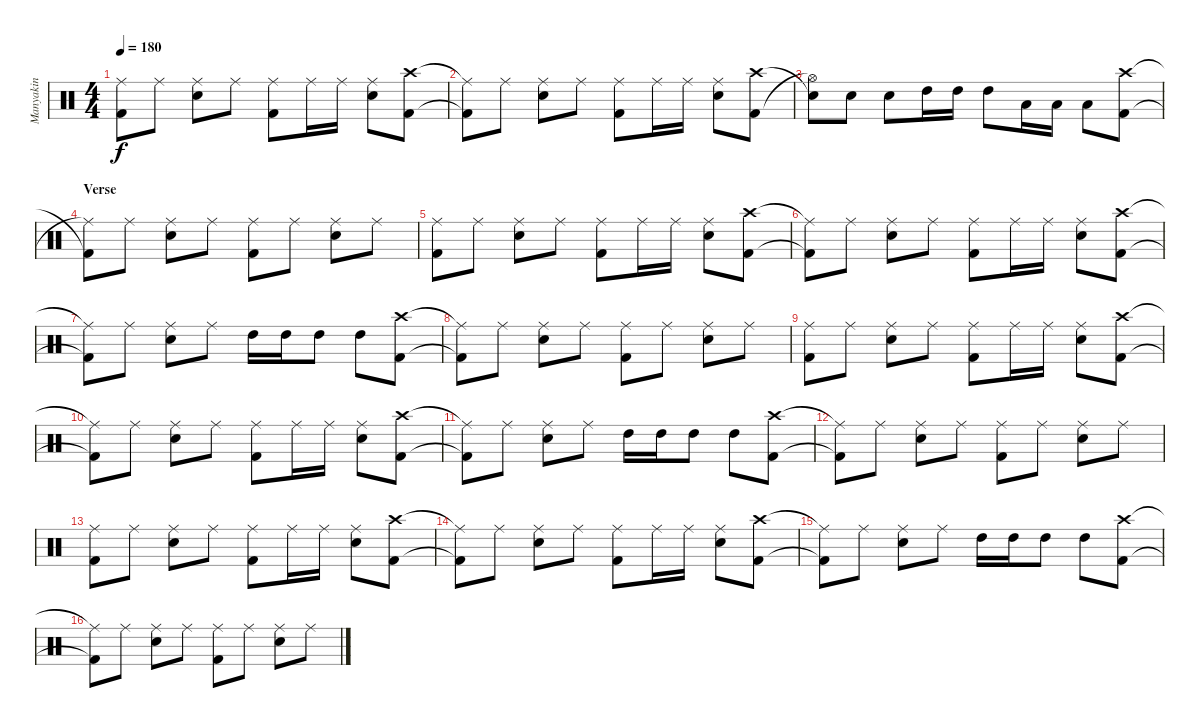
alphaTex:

\track ("Manyakin" "Manyakin") {instrument percussion}
\staff {score}
\articulation defaults
\ts (4 4)
\tempo 180
\clef neutral
\ks c
("Kick (hit) 2" "Ride (middle)").8{dy f} "Ride (middle)".8 ("Snare (hit) 2" "Ride (middle)").8 "Ride (middle)".8 ("Kick (hit) 2" "Ride (middle)").8 "Ride (middle)".16 "Ride (middle)".16 ("Snare (hit) 2" "Ride (middle)").8 ("Kick (hit) 2" "Crash high (hit)").8 |
("Kick (hit) 2"{t} "Ride (middle)"{t}).8 "Ride (middle)".8 ("Snare (hit) 2" "Ride (middle)").8 "Ride (middle)".8 ("Kick (hit) 2" "Ride (middle)").8 "Ride (middle)".16 "Ride (middle)".16 ("Snare (hit) 2" "Ride (middle)").8 ("Kick (hit) 2" "Crash high (hit)").8 |
("Hi-Hat (open)"{t} "Snare (hit)"{t}).8 "Snare (hit) 2".8 "Snare (hit) 2".8 "High Tom (hit)".16 "High Tom (hit)".16 "High Tom (hit)".8 "Low Tom (hit)".16 "Low Tom (hit)".16 "Low Tom (hit)".8 ("Kick (hit) 2" "Crash high (hit)").8 |
\section ("" "Verse")
("Ride (middle)"{t} "Kick (hit) 2"{t}).8 "Ride (middle)".8 ("Ride (middle)" "Snare (hit) 2").8 "Ride (middle)".8 ("Ride (middle)" "Kick (hit) 2").8 "Ride (middle)".8 ("Ride (middle)" "Snare (hit) 2").8 "Ride (middle)".8 |
("Kick (hit) 2" "Ride (middle)").8 "Ride (middle)".8 ("Snare (hit) 2" "Ride (middle)").8 "Ride (middle)".8 ("Kick (hit) 2" "Ride (middle)").8 "Ride (middle)".16 "Ride (middle)".16 ("Snare (hit) 2" "Ride (middle)").8 ("Kick (hit) 2" "Crash high (hit)").8 |
("Kick (hit) 2"{t} "Ride (middle)"{t}).8 "Ride (middle)".8 ("Snare (hit) 2" "Ride (middle)").8 "Ride (middle)".8 ("Kick (hit) 2" "Ride (middle)").8 "Ride (middle)".16 "Ride (middle)".16 ("Snare (hit) 2" "Ride (middle)").8 ("Kick (hit) 2" "Crash high (hit)").8 |
("Kick (hit) 2"{t} "Ride (middle)"{t}).8 "Ride (middle)".8 ("Snare (hit) 2" "Ride (middle)").8 "Ride (middle)".8 "High Tom (hit)".16 "High Tom (hit)".16 "High Tom (hit)".8 "High Tom (hit)".8 ("Crash high (hit)" "Kick (hit) 2").8 |
("Ride (middle)"{t} "Kick (hit) 2"{t}).8 "Ride (middle)".8 ("Ride (middle)" "Snare (hit) 2").8 "Ride (middle)".8 ("Ride (middle)" "Kick (hit) 2").8 "Ride (middle)".8 ("Ride (middle)" "Snare (hit) 2").8 "Ride (middle)".8 |
("Kick (hit) 2" "Ride (middle)").8 "Ride (middle)".8 ("Snare (hit) 2" "Ride (middle)").8 "Ride (middle)".8 ("Kick (hit) 2" "Ride (middle)").8 "Ride (middle)".16 "Ride (middle)".16 ("Snare (hit) 2" "Ride (middle)").8 ("Kick (hit) 2" "Crash high (hit)").8 |
("Kick (hit) 2"{t} "Ride (middle)"{t}).8 "Ride (middle)".8 ("Snare (hit) 2" "Ride (middle)").8 "Ride (middle)".8 ("Kick (hit) 2" "Ride (middle)").8 "Ride (middle)".16 "Ride (middle)".16 ("Snare (hit) 2" "Ride (middle)").8 ("Kick (hit) 2" "Crash high (hit)").8 |
("Kick (hit) 2"{t} "Ride (middle)"{t}).8 "Ride (middle)".8 ("Snare (hit) 2" "Ride (middle)").8 "Ride (middle)".8 "High Tom (hit)".16 "High Tom (hit)".16 "High Tom (hit)".8 "High Tom (hit)".8 ("Crash high (hit)" "Kick (hit) 2").8 |
("Ride (middle)"{t} "Kick (hit) 2"{t}).8 "Ride (middle)".8 ("Ride (middle)" "Snare (hit) 2").8 "Ride (middle)".8 ("Ride (middle)" "Kick (hit) 2").8 "Ride (middle)".8 ("Ride (middle)" "Snare (hit) 2").8 "Ride (middle)".8 |
("Kick (hit) 2" "Ride (middle)").8 "Ride (middle)".8 ("Snare (hit) 2" "Ride (middle)").8 "Ride (middle)".8 ("Kick (hit) 2" "Ride (middle)").8 "Ride (middle)".16 "Ride (middle)".16 ("Snare (hit) 2" "Ride (middle)").8 ("Kick (hit) 2" "Crash high (hit)").8 |
("Kick (hit) 2"{t} "Ride (middle)"{t}).8 "Ride (middle)".8 ("Snare (hit) 2" "Ride (middle)").8 "Ride (middle)".8 ("Kick (hit) 2" "Ride (middle)").8 "Ride (middle)".16 "Ride (middle)".16 ("Snare (hit) 2" "Ride (middle)").8 ("Kick (hit) 2" "Crash high (hit)").8 |
("Kick (hit) 2"{t} "Ride (middle)"{t}).8 "Ride (middle)".8 ("Snare (hit) 2" "Ride (middle)").8 "Ride (middle)".8 "High Tom (hit)".16 "High Tom (hit)".16 "High Tom (hit)".8 "High Tom (hit)".8 ("Crash high (hit)" "Kick (hit) 2").8 |
("Ride (middle)"{t} "Kick (hit) 2"{t}).8 "Ride (middle)".8 ("Ride (middle)" "Snare (hit) 2").8 "Ride (middle)".8 ("Ride (middle)" "Kick (hit) 2").8 "Ride (middle)".8 ("Ride (middle)" "Snare (hit) 2").8 "Ride (middle)".8
